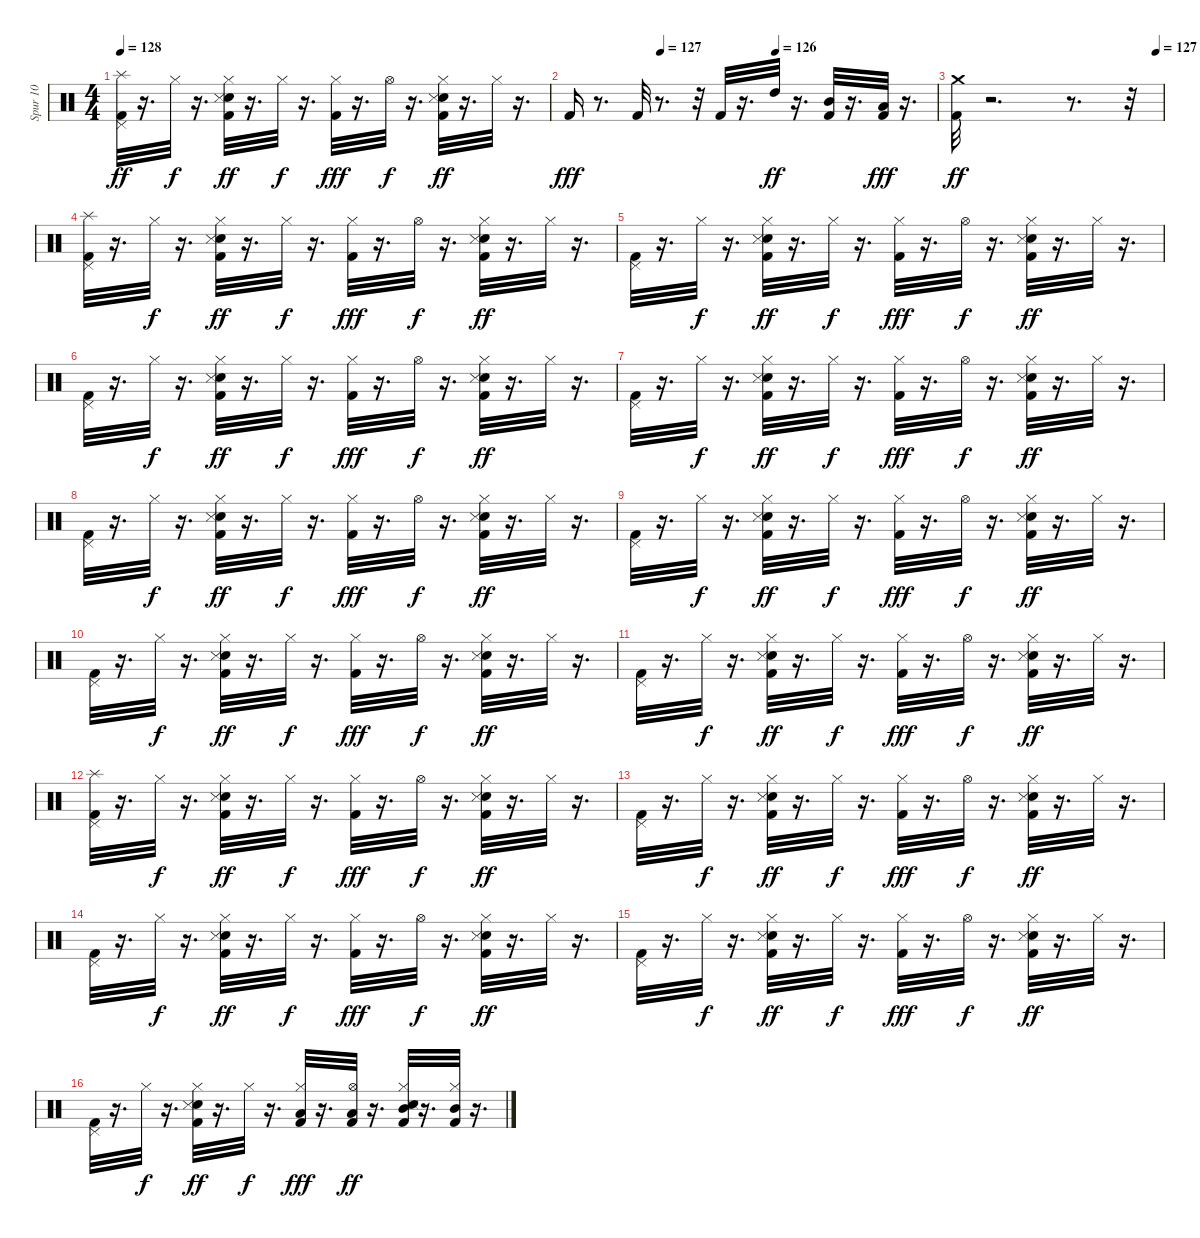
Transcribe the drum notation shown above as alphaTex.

\track ("Spur 10" "Spur 10") {instrument percussion}
\staff {score}
\articulation defaults
\ts (4 4)
\tempo 128
\clef neutral
\ks c
("Splash (hit)" "Kick (hit) 2" "Pedal Hi-Hat (hit)").32{dy ff} r.16{d} "Hi-Hat (closed)".32{dy f} r.16{d} ("Snare (hit) 2" "Kick (hit) 2" "Hi-Hat (closed)" "Snare (side stick) 3").32{dy ff} r.16{d} "Hi-Hat (closed)".32{dy f} r.16{d} ("Kick (hit) 2" "Hi-Hat (closed)").32{dy fff} r.16{d} "Hi-Hat (open)".32{dy f} r.16{d} ("Snare (hit) 2" "Kick (hit) 2" "Hi-Hat (closed)" "Snare (side stick) 3").32{dy ff} r.16{d} "Hi-Hat (closed)".32 r.16{d} |
\tempo (127 0.25)
\tempo (126 0.5625)
"Kick (hit) 2".16{dy fff} r.8{d} "Kick (hit) 2".32 r.8{d} r.32 "Kick (hit) 2".32 r.16{d} "High Tom (hit)".32{dy ff} r.16{d} ("Kick (hit) 2" "Mid Tom (hit)").32 r.16{d} ("Low Tom (hit)" "Kick (hit) 2").32{dy fff} r.16{d} |
\tempo (127 0.96875)
("Kick (hit) 2" "Crash medium (hit)").32{dy ff} r.2{d} r.8{d} r.32 |
("Splash (hit)" "Kick (hit) 2" "Pedal Hi-Hat (hit)").32 r.16{d} "Hi-Hat (closed)".32{dy f} r.16{d} ("Snare (hit) 2" "Kick (hit) 2" "Hi-Hat (closed)" "Snare (side stick) 3").32{dy ff} r.16{d} "Hi-Hat (closed)".32{dy f} r.16{d} ("Kick (hit) 2" "Hi-Hat (closed)").32{dy fff} r.16{d} "Hi-Hat (open)".32{dy f} r.16{d} ("Snare (hit) 2" "Kick (hit) 2" "Hi-Hat (closed)" "Snare (side stick) 3").32{dy ff} r.16{d} "Hi-Hat (closed)".32 r.16{d} |
("Kick (hit) 2" "Pedal Hi-Hat (hit)").32 r.16{d} "Hi-Hat (closed)".32{dy f} r.16{d} ("Snare (hit) 2" "Kick (hit) 2" "Hi-Hat (closed)" "Snare (side stick) 3").32{dy ff} r.16{d} "Hi-Hat (closed)".32{dy f} r.16{d} ("Kick (hit) 2" "Hi-Hat (closed)").32{dy fff} r.16{d} "Hi-Hat (open)".32{dy f} r.16{d} ("Snare (hit) 2" "Kick (hit) 2" "Hi-Hat (closed)" "Snare (side stick) 3").32{dy ff} r.16{d} "Hi-Hat (closed)".32 r.16{d} |
("Kick (hit) 2" "Pedal Hi-Hat (hit)").32 r.16{d} "Hi-Hat (closed)".32{dy f} r.16{d} ("Snare (hit) 2" "Kick (hit) 2" "Hi-Hat (closed)" "Snare (side stick) 3").32{dy ff} r.16{d} "Hi-Hat (closed)".32{dy f} r.16{d} ("Kick (hit) 2" "Hi-Hat (closed)").32{dy fff} r.16{d} "Hi-Hat (open)".32{dy f} r.16{d} ("Snare (hit) 2" "Kick (hit) 2" "Hi-Hat (closed)" "Snare (side stick) 3").32{dy ff} r.16{d} "Hi-Hat (closed)".32 r.16{d} |
("Kick (hit) 2" "Pedal Hi-Hat (hit)").32 r.16{d} "Hi-Hat (closed)".32{dy f} r.16{d} ("Snare (hit) 2" "Kick (hit) 2" "Hi-Hat (closed)" "Snare (side stick) 3").32{dy ff} r.16{d} "Hi-Hat (closed)".32{dy f} r.16{d} ("Kick (hit) 2" "Hi-Hat (closed)").32{dy fff} r.16{d} "Hi-Hat (open)".32{dy f} r.16{d} ("Snare (hit) 2" "Kick (hit) 2" "Hi-Hat (closed)" "Snare (side stick) 3").32{dy ff} r.16{d} "Hi-Hat (closed)".32 r.16{d} |
("Kick (hit) 2" "Pedal Hi-Hat (hit)").32 r.16{d} "Hi-Hat (closed)".32{dy f} r.16{d} ("Snare (hit) 2" "Kick (hit) 2" "Hi-Hat (closed)" "Snare (side stick) 3").32{dy ff} r.16{d} "Hi-Hat (closed)".32{dy f} r.16{d} ("Kick (hit) 2" "Hi-Hat (closed)").32{dy fff} r.16{d} "Hi-Hat (open)".32{dy f} r.16{d} ("Snare (hit) 2" "Kick (hit) 2" "Hi-Hat (closed)" "Snare (side stick) 3").32{dy ff} r.16{d} "Hi-Hat (closed)".32 r.16{d} |
("Kick (hit) 2" "Pedal Hi-Hat (hit)").32 r.16{d} "Hi-Hat (closed)".32{dy f} r.16{d} ("Snare (hit) 2" "Kick (hit) 2" "Hi-Hat (closed)" "Snare (side stick) 3").32{dy ff} r.16{d} "Hi-Hat (closed)".32{dy f} r.16{d} ("Kick (hit) 2" "Hi-Hat (closed)").32{dy fff} r.16{d} "Hi-Hat (open)".32{dy f} r.16{d} ("Snare (hit) 2" "Kick (hit) 2" "Hi-Hat (closed)" "Snare (side stick) 3").32{dy ff} r.16{d} "Hi-Hat (closed)".32 r.16{d} |
("Kick (hit) 2" "Pedal Hi-Hat (hit)").32 r.16{d} "Hi-Hat (closed)".32{dy f} r.16{d} ("Snare (hit) 2" "Kick (hit) 2" "Hi-Hat (closed)" "Snare (side stick) 3").32{dy ff} r.16{d} "Hi-Hat (closed)".32{dy f} r.16{d} ("Kick (hit) 2" "Hi-Hat (closed)").32{dy fff} r.16{d} "Hi-Hat (open)".32{dy f} r.16{d} ("Snare (hit) 2" "Kick (hit) 2" "Hi-Hat (closed)" "Snare (side stick) 3").32{dy ff} r.16{d} "Hi-Hat (closed)".32 r.16{d} |
("Kick (hit) 2" "Pedal Hi-Hat (hit)").32 r.16{d} "Hi-Hat (closed)".32{dy f} r.16{d} ("Snare (hit) 2" "Kick (hit) 2" "Hi-Hat (closed)" "Snare (side stick) 3").32{dy ff} r.16{d} "Hi-Hat (closed)".32{dy f} r.16{d} ("Kick (hit) 2" "Hi-Hat (closed)").32{dy fff} r.16{d} "Hi-Hat (open)".32{dy f} r.16{d} ("Snare (hit) 2" "Kick (hit) 2" "Hi-Hat (closed)" "Snare (side stick) 3").32{dy ff} r.16{d} "Hi-Hat (closed)".32 r.16{d} |
("Splash (hit)" "Kick (hit) 2" "Pedal Hi-Hat (hit)").32 r.16{d} "Hi-Hat (closed)".32{dy f} r.16{d} ("Snare (hit) 2" "Kick (hit) 2" "Hi-Hat (closed)" "Snare (side stick) 3").32{dy ff} r.16{d} "Hi-Hat (closed)".32{dy f} r.16{d} ("Kick (hit) 2" "Hi-Hat (closed)").32{dy fff} r.16{d} "Hi-Hat (open)".32{dy f} r.16{d} ("Snare (hit) 2" "Kick (hit) 2" "Hi-Hat (closed)" "Snare (side stick) 3").32{dy ff} r.16{d} "Hi-Hat (closed)".32 r.16{d} |
("Kick (hit) 2" "Pedal Hi-Hat (hit)").32 r.16{d} "Hi-Hat (closed)".32{dy f} r.16{d} ("Snare (hit) 2" "Kick (hit) 2" "Hi-Hat (closed)" "Snare (side stick) 3").32{dy ff} r.16{d} "Hi-Hat (closed)".32{dy f} r.16{d} ("Kick (hit) 2" "Hi-Hat (closed)").32{dy fff} r.16{d} "Hi-Hat (open)".32{dy f} r.16{d} ("Snare (hit) 2" "Kick (hit) 2" "Hi-Hat (closed)" "Snare (side stick) 3").32{dy ff} r.16{d} "Hi-Hat (closed)".32 r.16{d} |
("Kick (hit) 2" "Pedal Hi-Hat (hit)").32 r.16{d} "Hi-Hat (closed)".32{dy f} r.16{d} ("Snare (hit) 2" "Kick (hit) 2" "Hi-Hat (closed)" "Snare (side stick) 3").32{dy ff} r.16{d} "Hi-Hat (closed)".32{dy f} r.16{d} ("Kick (hit) 2" "Hi-Hat (closed)").32{dy fff} r.16{d} "Hi-Hat (open)".32{dy f} r.16{d} ("Snare (hit) 2" "Kick (hit) 2" "Hi-Hat (closed)" "Snare (side stick) 3").32{dy ff} r.16{d} "Hi-Hat (closed)".32 r.16{d} |
("Kick (hit) 2" "Pedal Hi-Hat (hit)").32 r.16{d} "Hi-Hat (closed)".32{dy f} r.16{d} ("Snare (hit) 2" "Kick (hit) 2" "Hi-Hat (closed)" "Snare (side stick) 3").32{dy ff} r.16{d} "Hi-Hat (closed)".32{dy f} r.16{d} ("Kick (hit) 2" "Hi-Hat (closed)").32{dy fff} r.16{d} "Hi-Hat (open)".32{dy f} r.16{d} ("Snare (hit) 2" "Kick (hit) 2" "Hi-Hat (closed)" "Snare (side stick) 3").32{dy ff} r.16{d} "Hi-Hat (closed)".32 r.16{d} |
("Kick (hit) 2" "Pedal Hi-Hat (hit)").32 r.16{d} "Hi-Hat (closed)".32{dy f} r.16{d} ("Snare (hit) 2" "Kick (hit) 2" "Hi-Hat (closed)" "Snare (side stick) 3").32{dy ff} r.16{d} "Hi-Hat (closed)".32{dy f} r.16{d} ("Low Tom (hit)" "Kick (hit) 2" "Hi-Hat (closed)").32{dy fff} r.16{d} ("Low Tom (hit)" "Kick (hit) 2" "Hi-Hat (open)").32{dy ff} r.16{d} ("Snare (hit) 2" "Kick (hit) 2" "Mid Tom (hit)" "Hi-Hat (closed)" "Snare (side stick) 3").32 r.16{d} ("Mid Tom (hit)" "Kick (hit) 2" "Hi-Hat (closed)").32 r.16{d}
